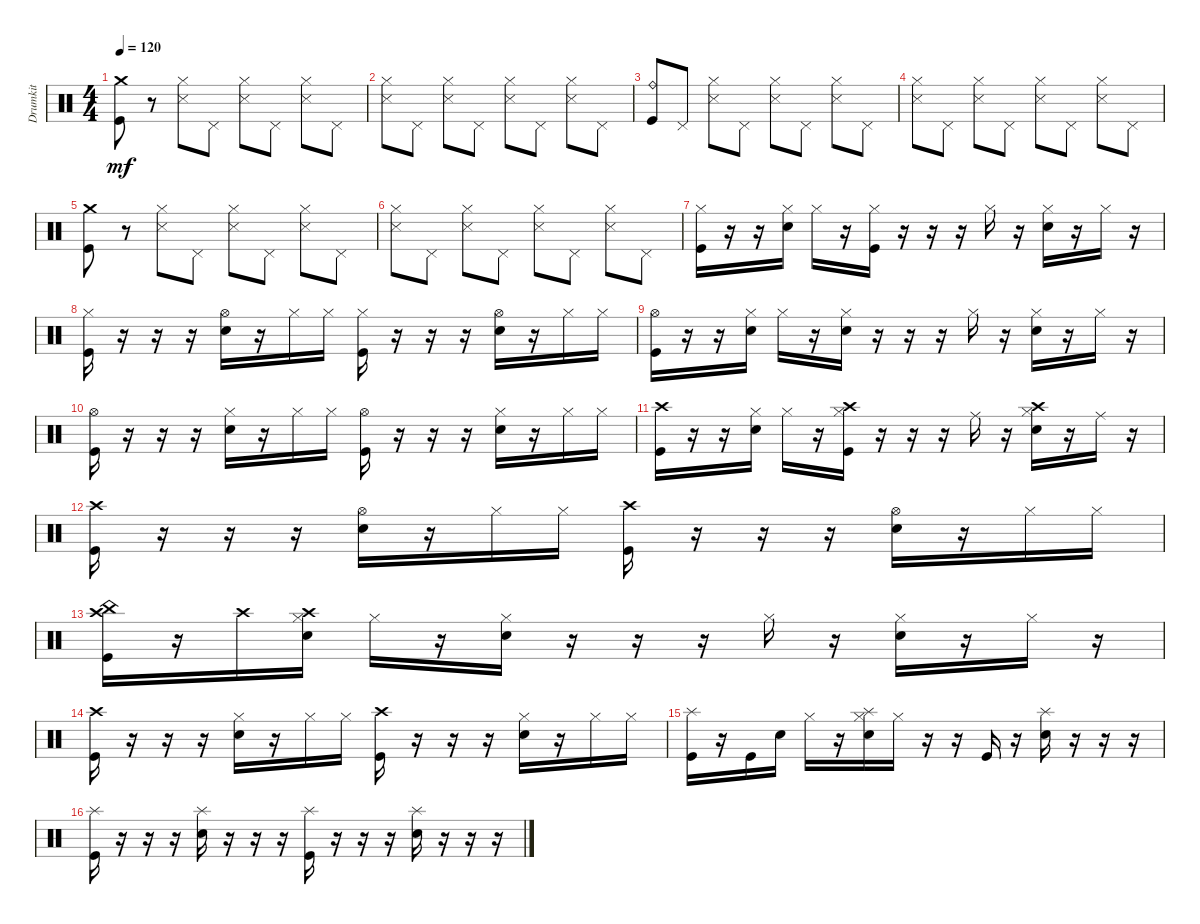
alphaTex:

\track ("Drumkit" "Drumkit") {instrument percussion}
\staff {score}
\articulation defaults
\ts (4 4)
\tempo 120
\clef neutral
\ks c
("Kick (hit)" "Crash medium (hit)").8{dy mf} r.8 ("Hi-Hat (closed)" "Snare (side stick) 3").8 "Pedal Hi-Hat (hit)".8 ("Hi-Hat (closed)" "Snare (side stick) 3").8 "Pedal Hi-Hat (hit)".8 ("Hi-Hat (closed)" "Snare (side stick) 3").8 "Pedal Hi-Hat (hit)".8 |
("Hi-Hat (closed)" "Snare (side stick) 3").8 "Pedal Hi-Hat (hit)".8 ("Hi-Hat (closed)" "Snare (side stick) 3").8 "Pedal Hi-Hat (hit)".8 ("Hi-Hat (closed)" "Snare (side stick) 3").8 "Pedal Hi-Hat (hit)".8 ("Hi-Hat (closed)" "Snare (side stick) 3").8 "Pedal Hi-Hat (hit)".8 |
("Kick (hit)" "Ride (bell)").8 "Pedal Hi-Hat (hit)".8 ("Hi-Hat (closed)" "Snare (side stick) 3").8 "Pedal Hi-Hat (hit)".8 ("Hi-Hat (closed)" "Snare (side stick) 3").8 "Pedal Hi-Hat (hit)".8 ("Hi-Hat (closed)" "Snare (side stick) 3").8 "Pedal Hi-Hat (hit)".8 |
("Hi-Hat (closed)" "Snare (side stick) 3").8 "Pedal Hi-Hat (hit)".8 ("Hi-Hat (closed)" "Snare (side stick) 3").8 "Pedal Hi-Hat (hit)".8 ("Hi-Hat (closed)" "Snare (side stick) 3").8 "Pedal Hi-Hat (hit)".8 ("Hi-Hat (closed)" "Snare (side stick) 3").8 "Pedal Hi-Hat (hit)".8 |
("Kick (hit)" "Crash medium (hit)").8 r.8 ("Hi-Hat (closed)" "Snare (side stick) 3").8 "Pedal Hi-Hat (hit)".8 ("Hi-Hat (closed)" "Snare (side stick) 3").8 "Pedal Hi-Hat (hit)".8 ("Hi-Hat (closed)" "Snare (side stick) 3").8 "Pedal Hi-Hat (hit)".8 |
("Hi-Hat (closed)" "Snare (side stick) 3").8 "Pedal Hi-Hat (hit)".8 ("Hi-Hat (closed)" "Snare (side stick) 3").8 "Pedal Hi-Hat (hit)".8 ("Hi-Hat (closed)" "Snare (side stick) 3").8 "Pedal Hi-Hat (hit)".8 ("Hi-Hat (closed)" "Snare (side stick) 3").8 "Pedal Hi-Hat (hit)".8 |
("Kick (hit)" "Hi-Hat (closed)").16 r.16 r.16 ("Snare (hit) 2" "Hi-Hat (closed)").16 "Hi-Hat (closed)".16 r.16 ("Kick (hit)" "Hi-Hat (closed)").16 r.16 r.16 r.16 "Hi-Hat (closed)".16 r.16 ("Snare (hit) 2" "Hi-Hat (closed)").16 r.16 "Hi-Hat (closed)".16 r.16 |
("Kick (hit)" "Hi-Hat (closed)").16 r.16 r.16 r.16 ("Hi-Hat (open)" "Snare (hit) 2").16 r.16 "Hi-Hat (closed)".16 "Hi-Hat (closed)".16 ("Kick (hit)" "Hi-Hat (closed)").16 r.16 r.16 r.16 ("Hi-Hat (open)" "Snare (hit) 2").16 r.16 "Hi-Hat (closed)".16 "Hi-Hat (closed)".16 |
("Kick (hit)" "Hi-Hat (open)").16 r.16 r.16 ("Snare (hit) 2" "Hi-Hat (closed)").16 "Hi-Hat (closed)".16 r.16 ("Hi-Hat (closed)" "Snare (hit) 2").16 r.16 r.16 r.16 "Hi-Hat (closed)".16 r.16 ("Snare (hit) 2" "Hi-Hat (closed)").16 r.16 "Hi-Hat (closed)".16 r.16 |
("Kick (hit)" "Hi-Hat (open)").16 r.16 r.16 r.16 ("Hi-Hat (closed)" "Snare (hit) 2").16 r.16 "Hi-Hat (closed)".16 "Hi-Hat (closed)".16 ("Kick (hit)" "Hi-Hat (open)").16 r.16 r.16 r.16 ("Hi-Hat (closed)" "Snare (hit) 2").16 r.16 "Hi-Hat (closed)".16 "Hi-Hat (closed)".16 |
("Kick (hit)" "Crash high (hit)").16 r.16 r.16 ("Snare (hit) 2" "Hi-Hat (closed)").16 "Hi-Hat (closed)".16 r.16 ("Kick (hit)" "Hi-Hat (closed)" "Crash high (hit)").16 r.16 r.16 r.16 "Ride (middle)".16 r.16 ("Snare (hit) 2" "Hi-Hat (closed)" "Crash high (hit)").16 r.16 "Ride (middle)".16 r.16 |
("Kick (hit)" "Crash high (hit)").16 r.16 r.16 r.16 ("Hi-Hat (open)" "Snare (hit) 2").16 r.16 "Hi-Hat (closed)".16 "Hi-Hat (closed)".16 ("Kick (hit)" "Crash high (hit)").16 r.16 r.16 r.16 ("Hi-Hat (open)" "Snare (hit) 2").16 r.16 "Hi-Hat (closed)".16 "Hi-Hat (closed)".16 |
("Kick (hit)" "Crash high (hit)" "China (hit)").16 r.16 "Crash high (hit)".16 ("Snare (hit) 2" "Hi-Hat (closed)" "Crash high (hit)").16 "Hi-Hat (closed)".16 r.16 ("Hi-Hat (closed)" "Snare (hit) 2").16 r.16 r.16 r.16 "Hi-Hat (closed)".16 r.16 ("Snare (hit) 2" "Hi-Hat (closed)").16 r.16 "Hi-Hat (closed)".16 r.16 |
("Kick (hit)" "Crash high (hit)").16 r.16 r.16 r.16 ("Hi-Hat (closed)" "Snare (hit) 2").16 r.16 "Hi-Hat (closed)".16 "Hi-Hat (closed)".16 ("Kick (hit)" "Crash high (hit)").16 r.16 r.16 r.16 ("Hi-Hat (closed)" "Snare (hit) 2").16 r.16 "Hi-Hat (closed)".16 "Hi-Hat (closed)".16 |
("Kick (hit)" "Splash (hit)").16 r.16 "Kick (hit)".16 "Snare (hit) 2".16 "Hi-Hat (closed)".16 r.16 ("Hi-Hat (closed)" "Snare (hit) 2" "Splash (hit)").16 "Hi-Hat (closed)".16 r.16 r.16 "Kick (hit)".16 r.16 ("Snare (hit) 2" "Splash (hit)").16 r.16 r.16 r.16 |
("Kick (hit)" "Splash (hit)").16 r.16 r.16 r.16 ("Snare (hit) 2" "Splash (hit)").16 r.16 r.16 r.16 ("Kick (hit)" "Splash (hit)").16 r.16 r.16 r.16 ("Splash (hit)" "Snare (hit) 2").16 r.16 r.16 r.16
